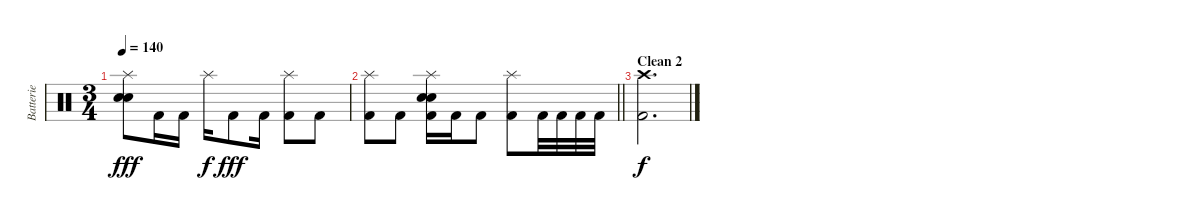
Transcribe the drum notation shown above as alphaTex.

\track ("Batterie" "Batterie") {instrument percussion}
\staff {score}
\articulation defaults
\ts (3 4)
\tempo 140
\clef neutral
\ks c
("Splash (hit)" "Electric Snare (hit)" "Electric Snare (hit)").8{dy fff} "Kick (hit) 2".16 "Kick (hit) 2".16 "Splash (hit)".16{dy f} "Kick (hit) 2".8{dy fff} "Kick (hit) 2".16 ("Splash (hit)" "Kick (hit) 2").8 "Kick (hit) 2".8 |
\barLineRight lightlight
("Splash (hit)" "Kick (hit) 2").8 "Kick (hit) 2".8 ("Splash (hit)" "Electric Snare (hit)" "Electric Snare (hit)" "Kick (hit) 2").16 "Kick (hit) 2".16 "Kick (hit) 2".8 ("Splash (hit)" "Kick (hit) 2").8 "Kick (hit) 2".32 "Kick (hit) 2".32 "Kick (hit) 2".32 "Kick (hit) 2".32 |
\section ("" "Clean 2")
("Crash high (hit)" "Kick (hit) 2").2{d dy f}
